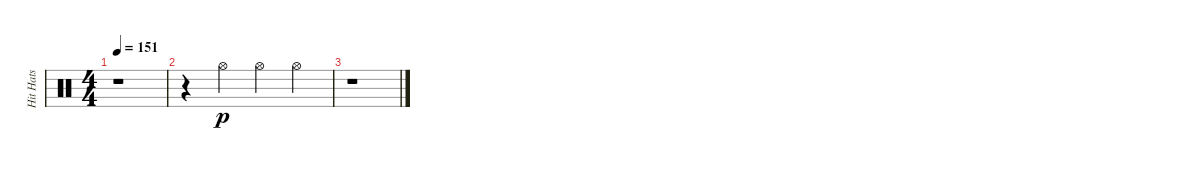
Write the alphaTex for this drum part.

\track ("Hit Hats" "Hit Hats") {instrument percussion}
\staff {score}
\articulation defaults
\ts (4 4)
\tempo 151
\clef neutral
\ks c
r.1{dy p} |
r.4 "Hi-Hat (open)".4 "Hi-Hat (open)".4 "Hi-Hat (open)".4 |
r.1
